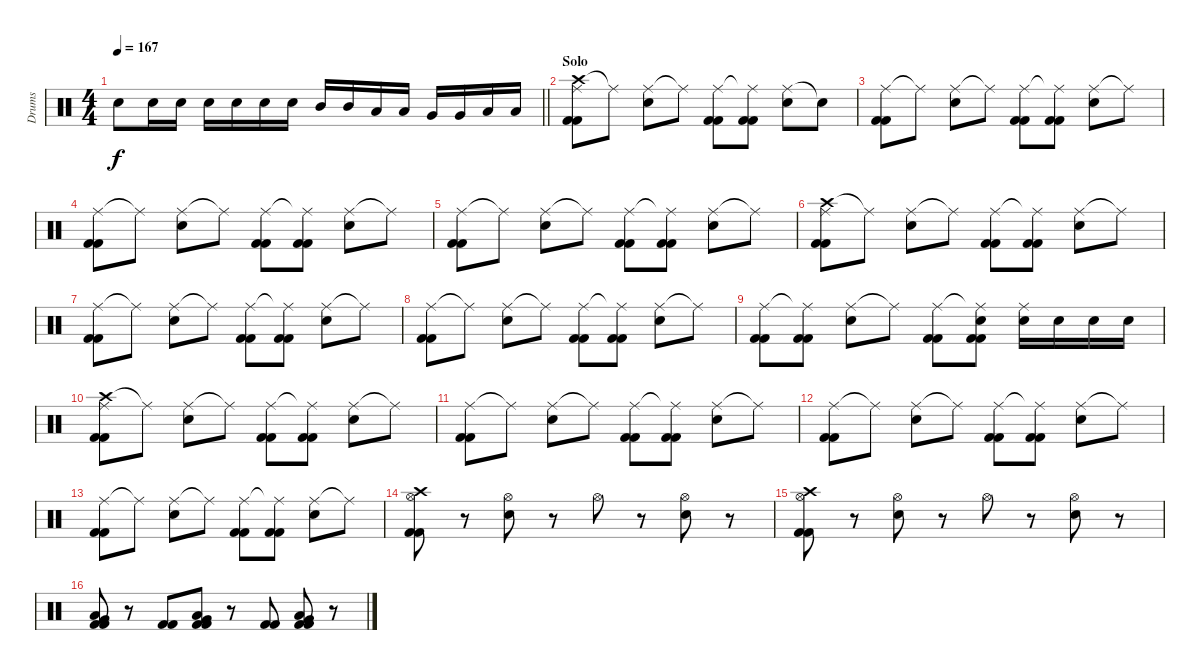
\track ("Drums" "Drums") {instrument percussion}
\staff {score}
\articulation defaults
\ts (4 4)
\tempo 167
\clef neutral
\barLineRight lightlight
\ks c "Electric Snare (hit)".8{dy f} "Electric Snare (hit)".16 "Electric Snare (hit)".16 "Electric Snare (hit)".16 "Electric Snare (hit)".16 "Electric Snare (hit)".16 "Electric Snare (hit)".16 "Mid Tom (hit)".16 "Mid Tom (hit)".16 "Low Tom (hit)".16 "Low Tom (hit)".16 "Very Low Tom (hit)".16 "Very Low Tom (hit)".16 "Low Floor Tom (hit)".16 "Low Floor Tom (hit)".16
|
\section ("" "Solo")
("Crash high (hit)" "Ride (middle)" "Kick (hit) 2" "Kick (hit) 2").8{volume 14} "Ride (middle)"{t}.8 ("Ride (middle)" "Electric Snare (hit)").8 "Ride (middle)"{t}.8 ("Ride (middle)" "Kick (hit) 2" "Kick (hit) 2").8 ("Ride (middle)"{t} "Kick (hit) 2" "Kick (hit) 2").8 ("Ride (middle)" "Electric Snare (hit)").8 "Snare (hit)"{t}.8 |
("Ride (middle)" "Kick (hit) 2" "Kick (hit) 2").8 "Ride (middle)"{t}.8 ("Ride (middle)" "Electric Snare (hit)").8 "Ride (middle)"{t}.8 ("Ride (middle)" "Kick (hit) 2" "Kick (hit) 2").8 ("Ride (middle)"{t} "Kick (hit) 2" "Kick (hit) 2").8 ("Ride (middle)" "Electric Snare (hit)").8 "Ride (middle)"{t}.8 |
("Ride (middle)" "Kick (hit) 2" "Kick (hit) 2").8 "Ride (middle)"{t}.8 ("Ride (middle)" "Electric Snare (hit)").8 "Ride (middle)"{t}.8 ("Ride (middle)" "Kick (hit) 2" "Kick (hit) 2").8 ("Ride (middle)"{t} "Kick (hit) 2" "Kick (hit) 2").8 ("Ride (middle)" "Electric Snare (hit)").8 "Ride (middle)"{t}.8 |
("Ride (middle)" "Kick (hit) 2" "Kick (hit) 2").8 "Ride (middle)"{t}.8 ("Ride (middle)" "Electric Snare (hit)").8 "Ride (middle)"{t}.8 ("Ride (middle)" "Kick (hit) 2" "Kick (hit) 2").8 ("Ride (middle)"{t} "Kick (hit) 2" "Kick (hit) 2").8 ("Ride (middle)" "Electric Snare (hit)").8 "Ride (middle)"{t}.8 |
("Crash high (hit)" "Ride (middle)" "Kick (hit) 2" "Kick (hit) 2").8 "Ride (middle)"{t}.8 ("Ride (middle)" "Electric Snare (hit)").8 "Ride (middle)"{t}.8 ("Ride (middle)" "Kick (hit) 2" "Kick (hit) 2").8 ("Ride (middle)"{t} "Kick (hit) 2" "Kick (hit) 2").8 ("Ride (middle)" "Electric Snare (hit)").8 "Ride (middle)"{t}.8 |
("Ride (middle)" "Kick (hit) 2" "Kick (hit) 2").8 "Ride (middle)"{t}.8 ("Ride (middle)" "Electric Snare (hit)").8 "Ride (middle)"{t}.8 ("Ride (middle)" "Kick (hit) 2" "Kick (hit) 2").8 ("Ride (middle)"{t} "Kick (hit) 2" "Kick (hit) 2").8 ("Ride (middle)" "Electric Snare (hit)").8 "Ride (middle)"{t}.8 |
("Ride (middle)" "Kick (hit) 2" "Kick (hit) 2").8 "Ride (middle)"{t}.8 ("Ride (middle)" "Electric Snare (hit)").8 "Ride (middle)"{t}.8 ("Ride (middle)" "Kick (hit) 2" "Kick (hit) 2").8 ("Ride (middle)"{t} "Kick (hit) 2" "Kick (hit) 2").8 ("Ride (middle)" "Electric Snare (hit)").8 "Ride (middle)"{t}.8 |
("Ride (middle)" "Kick (hit) 2" "Kick (hit) 2").8 ("Ride (middle)"{t} "Kick (hit) 2" "Kick (hit) 2").8 ("Ride (middle)" "Electric Snare (hit)").8 "Ride (middle)"{t}.8 ("Ride (middle)" "Kick (hit) 2" "Kick (hit) 2").8 ("Ride (middle)"{t} "Electric Snare (hit)" "Kick (hit) 2" "Kick (hit) 2").8 ("Ride (middle)" "Electric Snare (hit)").16 "Electric Snare (hit)".16 "Electric Snare (hit)".16 "Electric Snare (hit)".16 |
("Crash high (hit)" "Ride (middle)" "Kick (hit) 2" "Kick (hit) 2").8 "Ride (middle)"{t}.8 ("Ride (middle)" "Electric Snare (hit)").8 "Ride (middle)"{t}.8 ("Ride (middle)" "Kick (hit) 2" "Kick (hit) 2").8 ("Ride (middle)"{t} "Kick (hit) 2" "Kick (hit) 2").8 ("Ride (middle)" "Electric Snare (hit)").8 "Ride (middle)"{t}.8 |
("Ride (middle)" "Kick (hit) 2" "Kick (hit) 2").8 "Ride (middle)"{t}.8 ("Ride (middle)" "Electric Snare (hit)").8 "Ride (middle)"{t}.8 ("Ride (middle)" "Kick (hit) 2" "Kick (hit) 2").8 ("Ride (middle)"{t} "Kick (hit) 2" "Kick (hit) 2").8 ("Ride (middle)" "Electric Snare (hit)").8 "Ride (middle)"{t}.8 |
("Ride (middle)" "Kick (hit) 2" "Kick (hit) 2").8 "Ride (middle)"{t}.8 ("Ride (middle)" "Electric Snare (hit)").8 "Ride (middle)"{t}.8 ("Ride (middle)" "Kick (hit) 2" "Kick (hit) 2").8 ("Ride (middle)"{t} "Kick (hit) 2" "Kick (hit) 2").8 ("Ride (middle)" "Electric Snare (hit)").8 "Ride (middle)"{t}.8 |
("Ride (middle)" "Kick (hit) 2" "Kick (hit) 2").8 "Ride (middle)"{t}.8 ("Ride (middle)" "Electric Snare (hit)").8 "Ride (middle)"{t}.8 ("Ride (middle)" "Kick (hit) 2" "Kick (hit) 2").8 ("Ride (middle)"{t} "Kick (hit) 2" "Kick (hit) 2").8 ("Ride (middle)" "Electric Snare (hit)").8 "Ride (middle)"{t}.8 |
("Crash high (hit)" "Hi-Hat (open)" "Kick (hit) 2" "Kick (hit) 2").8 r.8 ("Hi-Hat (open)" "Electric Snare (hit)").8 r.8 "Hi-Hat (open)".8 r.8 ("Hi-Hat (open)" "Electric Snare (hit)").8 r.8 |
("Crash high (hit)" "Hi-Hat (open)" "Kick (hit) 2" "Kick (hit) 2").8 r.8 ("Hi-Hat (open)" "Electric Snare (hit)").8 r.8 "Hi-Hat (open)".8 r.8 ("Hi-Hat (open)" "Electric Snare (hit)").8 r.8 |
("Low Floor Tom (hit)" "Very Low Tom (hit)" "Kick (hit) 2" "Kick (hit) 2").8 r.8 ("Kick (hit) 2" "Kick (hit) 2").8 ("Low Floor Tom (hit)" "Very Low Tom (hit)" "Kick (hit) 2" "Kick (hit) 2").8 r.8 ("Kick (hit) 2" "Kick (hit) 2").8 ("Low Floor Tom (hit)" "Very Low Tom (hit)" "Kick (hit) 2" "Kick (hit) 2").8 r.8
